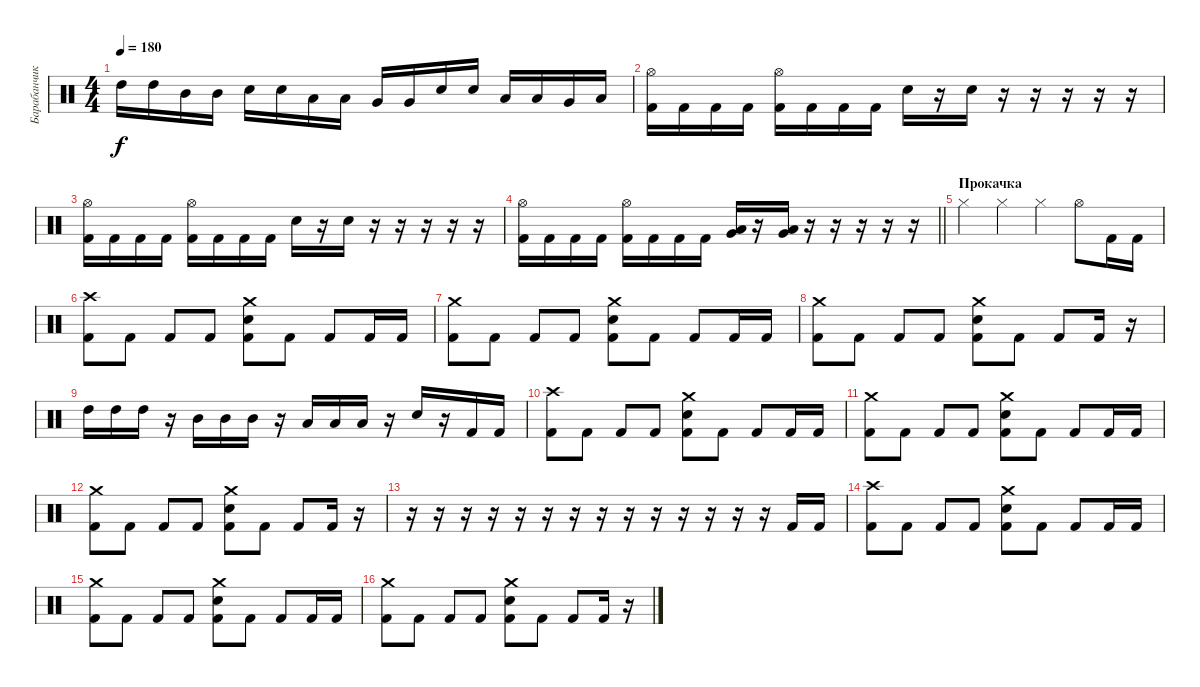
\track ("Барабанчики" "Барабанчик") {instrument percussion}
\staff {score}
\articulation defaults
\ts (4 4)
\tempo 180
\clef neutral
\ks c "High Tom (hit)".16{dy f} "High Tom (hit)".16 "Mid Tom (hit)".16 "Mid Tom (hit)".16 "Electric Snare (hit)".16 "Electric Snare (hit)".16 "Low Tom (hit)".16 "Low Tom (hit)".16 "Very Low Tom (hit)".16 "Very Low Tom (hit)".16 "Electric Snare (hit)".16 "Electric Snare (hit)".16 "Low Floor Tom (hit)".16 "Low Floor Tom (hit)".16 "Very Low Tom (hit)".16 "Low Tom (hit)".16
|
("Kick (hit) 2" "Hi-Hat (open)").16 "Kick (hit) 2".16 "Kick (hit) 2".16 "Kick (hit) 2".16 ("Kick (hit) 2" "Hi-Hat (open)").16 "Kick (hit) 2".16 "Kick (hit) 2".16 "Kick (hit) 2".16 "Electric Snare (hit)".16 r.16 "Electric Snare (hit)".16 r.16 r.16 r.16 r.16 r.16 |
("Kick (hit) 2" "Hi-Hat (open)").16 "Kick (hit) 2".16 "Kick (hit) 2".16 "Kick (hit) 2".16 ("Kick (hit) 2" "Hi-Hat (open)").16 "Kick (hit) 2".16 "Kick (hit) 2".16 "Kick (hit) 2".16 "Electric Snare (hit)".16 r.16 "Electric Snare (hit)".16 r.16 r.16 r.16 r.16 r.16 |
\barLineRight lightlight
("Kick (hit) 2" "Hi-Hat (open)").16 "Kick (hit) 2".16 "Kick (hit) 2".16 "Kick (hit) 2".16 ("Kick (hit) 2" "Hi-Hat (open)").16 "Kick (hit) 2".16 "Kick (hit) 2".16 "Kick (hit) 2".16 ("Very Low Tom (hit)" "Low Floor Tom (hit)").16 r.16 ("Very Low Tom (hit)" "Low Floor Tom (hit)").16 r.16 r.16 r.16 r.16 r.16 |
\section ("" "Прокачка")
"Hi-Hat (closed)".4 "Hi-Hat (closed)".4 "Hi-Hat (closed)".4 "Hi-Hat (open)".8 "Kick (hit) 2".16 "Kick (hit) 2".16 |
("Crash high (hit)" "Kick (hit) 2").8 "Kick (hit) 2".8 "Kick (hit) 2".8 "Kick (hit) 2".8 ("Crash medium (hit)" "Electric Snare (hit)" "Kick (hit) 2").8 "Kick (hit) 2".8 "Kick (hit) 2".8 "Kick (hit) 2".16 "Kick (hit) 2".16 |
("Crash medium (hit)" "Kick (hit) 2").8 "Kick (hit) 2".8 "Kick (hit) 2".8 "Kick (hit) 2".8 ("Crash medium (hit)" "Electric Snare (hit)" "Kick (hit) 2").8 "Kick (hit) 2".8 "Kick (hit) 2".8 "Kick (hit) 2".16 "Kick (hit) 2".16 |
("Crash medium (hit)" "Kick (hit) 2").8 "Kick (hit) 2".8 "Kick (hit) 2".8 "Kick (hit) 2".8 ("Crash medium (hit)" "Electric Snare (hit)" "Kick (hit) 2").8 "Kick (hit) 2".8 "Kick (hit) 2".8 "Kick (hit) 2".16 r.16 |
"High Tom (hit)".16 "High Tom (hit)".16 "High Tom (hit)".16 r.16 "Mid Tom (hit)".16 "Mid Tom (hit)".16 "Mid Tom (hit)".16 r.16 "Low Tom (hit)".16 "Low Tom (hit)".16 "Low Tom (hit)".16 r.16 "Electric Snare (hit)".16 r.16 "Kick (hit) 2".16 "Kick (hit) 2".16 |
("Crash high (hit)" "Kick (hit) 2").8 "Kick (hit) 2".8 "Kick (hit) 2".8 "Kick (hit) 2".8 ("Crash medium (hit)" "Electric Snare (hit)" "Kick (hit) 2").8 "Kick (hit) 2".8 "Kick (hit) 2".8 "Kick (hit) 2".16 "Kick (hit) 2".16 |
("Crash medium (hit)" "Kick (hit) 2").8 "Kick (hit) 2".8 "Kick (hit) 2".8 "Kick (hit) 2".8 ("Crash medium (hit)" "Electric Snare (hit)" "Kick (hit) 2").8 "Kick (hit) 2".8 "Kick (hit) 2".8 "Kick (hit) 2".16 "Kick (hit) 2".16 |
("Crash medium (hit)" "Kick (hit) 2").8 "Kick (hit) 2".8 "Kick (hit) 2".8 "Kick (hit) 2".8 ("Crash medium (hit)" "Electric Snare (hit)" "Kick (hit) 2").8 "Kick (hit) 2".8 "Kick (hit) 2".8 "Kick (hit) 2".16 r.16 |
r.16 r.16 r.16 r.16 r.16 r.16 r.16 r.16 r.16 r.16 r.16 r.16 r.16 r.16 "Kick (hit) 2".16 "Kick (hit) 2".16 |
("Crash high (hit)" "Kick (hit) 2").8 "Kick (hit) 2".8 "Kick (hit) 2".8 "Kick (hit) 2".8 ("Crash medium (hit)" "Electric Snare (hit)" "Kick (hit) 2").8 "Kick (hit) 2".8 "Kick (hit) 2".8 "Kick (hit) 2".16 "Kick (hit) 2".16 |
("Crash medium (hit)" "Kick (hit) 2").8 "Kick (hit) 2".8 "Kick (hit) 2".8 "Kick (hit) 2".8 ("Crash medium (hit)" "Electric Snare (hit)" "Kick (hit) 2").8 "Kick (hit) 2".8 "Kick (hit) 2".8 "Kick (hit) 2".16 "Kick (hit) 2".16 |
("Crash medium (hit)" "Kick (hit) 2").8 "Kick (hit) 2".8 "Kick (hit) 2".8 "Kick (hit) 2".8 ("Crash medium (hit)" "Electric Snare (hit)" "Kick (hit) 2").8 "Kick (hit) 2".8 "Kick (hit) 2".8 "Kick (hit) 2".16 r.16
